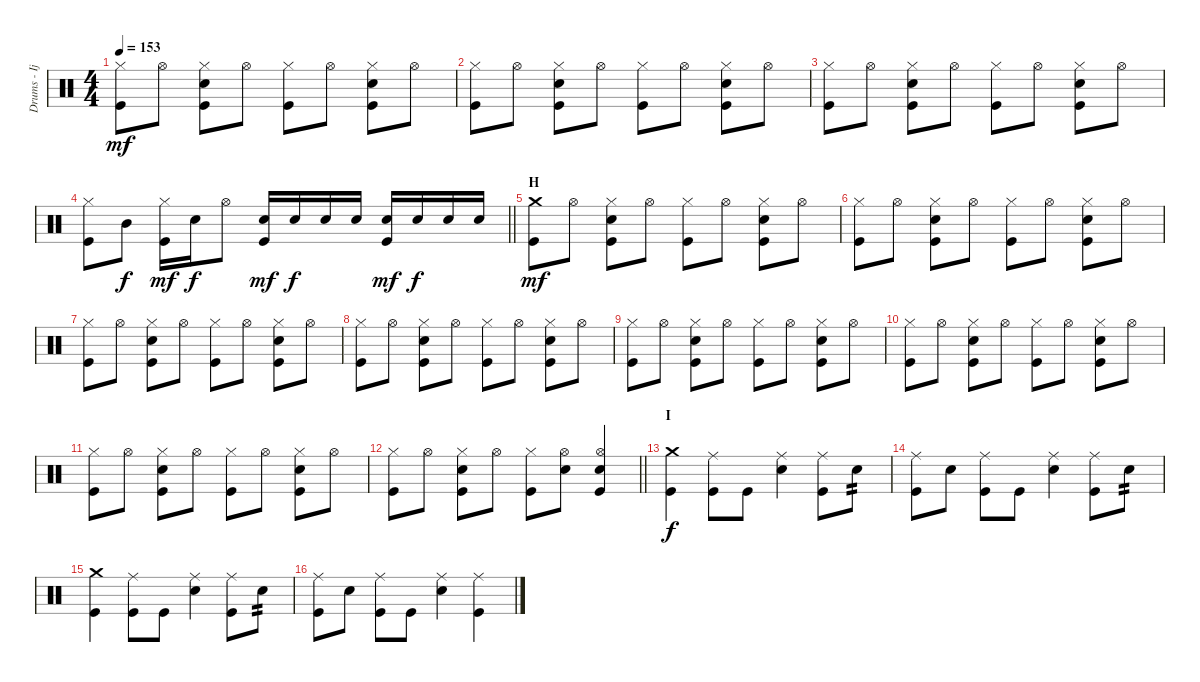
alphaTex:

\track ("Drums - Ijichi" "Drums - Ij") {instrument percussion}
\staff {score}
\articulation defaults
\ts (4 4)
\tempo 153
\clef neutral
\ks c
("Hi-Hat (closed)" "Kick (hit)").8{dy mf} "Hi-Hat (open)".8 ("Hi-Hat (closed)" "Electric Snare (hit)" "Kick (hit)").8 "Hi-Hat (open)".8 ("Hi-Hat (closed)" "Kick (hit)").8 "Hi-Hat (open)".8 ("Hi-Hat (closed)" "Electric Snare (hit)" "Kick (hit)").8 "Hi-Hat (open)".8 |
("Hi-Hat (closed)" "Kick (hit)").8 "Hi-Hat (open)".8 ("Hi-Hat (closed)" "Electric Snare (hit)" "Kick (hit)").8 "Hi-Hat (open)".8 ("Hi-Hat (closed)" "Kick (hit)").8 "Hi-Hat (open)".8 ("Hi-Hat (closed)" "Electric Snare (hit)" "Kick (hit)").8 "Hi-Hat (open)".8 |
("Hi-Hat (closed)" "Kick (hit)").8 "Hi-Hat (open)".8 ("Hi-Hat (closed)" "Electric Snare (hit)" "Kick (hit)").8 "Hi-Hat (open)".8 ("Hi-Hat (closed)" "Kick (hit)").8 "Hi-Hat (open)".8 ("Hi-Hat (closed)" "Electric Snare (hit)" "Kick (hit)").8 "Hi-Hat (open)".8 |
\barLineRight lightlight
("Hi-Hat (closed)" "Kick (hit)").8 "Mid Tom (hit)".8{dy f} ("Hi-Hat (closed)" "Kick (hit)").16{dy mf} "Electric Snare (hit)".16{dy f} "Hi-Hat (open)".8 ("Electric Snare (hit)" "Kick (hit)").16{dy mf} "Electric Snare (hit)".16{dy f} "Electric Snare (hit)".16 "Electric Snare (hit)".16 ("Electric Snare (hit)" "Kick (hit)").16{dy mf} "Electric Snare (hit)".16{dy f} "Electric Snare (hit)".16 "Electric Snare (hit)".16 |
\section ("" "H")
("Crash medium (hit)" "Kick (hit)").8{dy mf} "Hi-Hat (open)".8 ("Hi-Hat (closed)" "Electric Snare (hit)" "Kick (hit)").8 "Hi-Hat (open)".8 ("Hi-Hat (closed)" "Kick (hit)").8 "Hi-Hat (open)".8 ("Hi-Hat (closed)" "Electric Snare (hit)" "Kick (hit)").8 "Hi-Hat (open)".8 |
("Hi-Hat (closed)" "Kick (hit)").8 "Hi-Hat (open)".8 ("Hi-Hat (closed)" "Electric Snare (hit)" "Kick (hit)").8 "Hi-Hat (open)".8 ("Hi-Hat (closed)" "Kick (hit)").8 "Hi-Hat (open)".8 ("Hi-Hat (closed)" "Electric Snare (hit)" "Kick (hit)").8 "Hi-Hat (open)".8 |
("Hi-Hat (closed)" "Kick (hit)").8 "Hi-Hat (open)".8 ("Hi-Hat (closed)" "Electric Snare (hit)" "Kick (hit)").8 "Hi-Hat (open)".8 ("Hi-Hat (closed)" "Kick (hit)").8 "Hi-Hat (open)".8 ("Hi-Hat (closed)" "Electric Snare (hit)" "Kick (hit)").8 "Hi-Hat (open)".8 |
("Hi-Hat (closed)" "Kick (hit)").8 "Hi-Hat (open)".8 ("Hi-Hat (closed)" "Electric Snare (hit)" "Kick (hit)").8 "Hi-Hat (open)".8 ("Hi-Hat (closed)" "Kick (hit)").8 "Hi-Hat (open)".8 ("Hi-Hat (closed)" "Electric Snare (hit)" "Kick (hit)").8 "Hi-Hat (open)".8 |
("Hi-Hat (closed)" "Kick (hit)").8 "Hi-Hat (open)".8 ("Hi-Hat (closed)" "Electric Snare (hit)" "Kick (hit)").8 "Hi-Hat (open)".8 ("Hi-Hat (closed)" "Kick (hit)").8 "Hi-Hat (open)".8 ("Hi-Hat (closed)" "Electric Snare (hit)" "Kick (hit)").8 "Hi-Hat (open)".8 |
("Hi-Hat (closed)" "Kick (hit)").8 "Hi-Hat (open)".8 ("Hi-Hat (closed)" "Electric Snare (hit)" "Kick (hit)").8 "Hi-Hat (open)".8 ("Hi-Hat (closed)" "Kick (hit)").8 "Hi-Hat (open)".8 ("Hi-Hat (closed)" "Electric Snare (hit)" "Kick (hit)").8 "Hi-Hat (open)".8 |
("Hi-Hat (closed)" "Kick (hit)").8 "Hi-Hat (open)".8 ("Hi-Hat (closed)" "Electric Snare (hit)" "Kick (hit)").8 "Hi-Hat (open)".8 ("Hi-Hat (closed)" "Kick (hit)").8 "Hi-Hat (open)".8 ("Hi-Hat (closed)" "Electric Snare (hit)" "Kick (hit)").8 "Hi-Hat (open)".8 |
\barLineRight lightlight
("Hi-Hat (closed)" "Kick (hit)").8 "Hi-Hat (open)".8 ("Hi-Hat (closed)" "Electric Snare (hit)" "Kick (hit)").8 "Hi-Hat (open)".8 ("Hi-Hat (closed)" "Kick (hit)").8 ("Hi-Hat (open)" "Electric Snare (hit)").8 ("Hi-Hat (open)" "Electric Snare (hit)" "Kick (hit)").4 |
\section ("" "I")
("Crash medium (hit)" "Kick (hit)").4{dy f} ("Ride (middle)" "Kick (hit)").8 "Kick (hit)".8 ("Ride (middle)" "Electric Snare (hit)").4 ("Ride (middle)" "Kick (hit)").8 "Electric Snare (hit)".8{tp 2} |
("Ride (middle)" "Kick (hit)").8 "Electric Snare (hit)".8 ("Ride (middle)" "Kick (hit)").8 "Kick (hit)".8 ("Ride (middle)" "Electric Snare (hit)").4 ("Ride (middle)" "Kick (hit)").8 "Electric Snare (hit)".8{tp 2} |
("Crash medium (hit)" "Kick (hit)").4 ("Ride (middle)" "Kick (hit)").8 "Kick (hit)".8 ("Ride (middle)" "Electric Snare (hit)").4 ("Ride (middle)" "Kick (hit)").8 "Electric Snare (hit)".8{tp 2} |
("Ride (middle)" "Kick (hit)").8 "Electric Snare (hit)".8 ("Ride (middle)" "Kick (hit)").8 "Kick (hit)".8 ("Ride (middle)" "Electric Snare (hit)").4 ("Ride (middle)" "Kick (hit)").4
